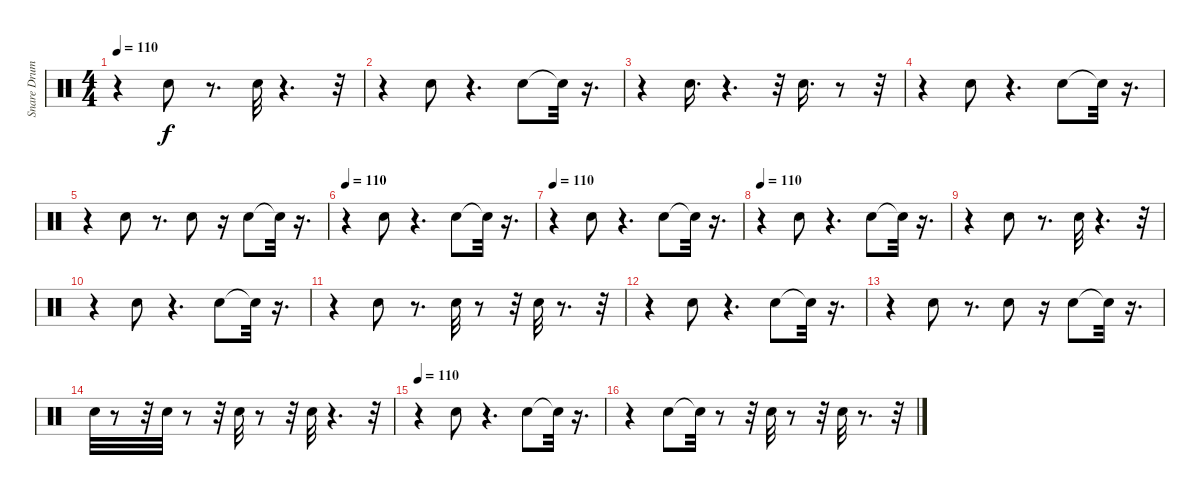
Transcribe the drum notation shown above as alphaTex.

\track ("Snare Drum" "Snare Drum") {instrument percussion}
\staff {score}
\articulation defaults
\ts (4 4)
\tempo 110
\clef neutral
\ks c
r.4{dy f} "Snare (hit) 2".8 r.8{d} "Snare (hit) 2".32 r.4{d} r.32 |
r.4 "Snare (hit) 2".8 r.4{d} "Snare (hit) 2".8 "Snare (hit)"{t}.32 r.16{d} |
r.4 "Snare (hit) 2".16{d} r.4{d} r.32 "Snare (hit) 2".16{d} r.8 r.32 |
r.4 "Snare (hit) 2".8 r.4{d} "Snare (hit) 2".8 "Snare (hit)"{t}.32 r.16{d} |
r.4 "Snare (hit) 2".8 r.8{d} "Snare (hit) 2".8 r.16 "Snare (hit) 2".8 "Snare (hit)"{t}.32 r.16{d} |
\tempo 110
r.4 "Snare (hit) 2".8 r.4{d} "Snare (hit) 2".8 "Snare (hit)"{t}.32 r.16{d} |
\tempo 110
r.4 "Snare (hit) 2".8 r.4{d} "Snare (hit) 2".8 "Snare (hit)"{t}.32 r.16{d} |
\tempo 110
r.4 "Snare (hit) 2".8 r.4{d} "Snare (hit) 2".8 "Snare (hit)"{t}.32 r.16{d} |
r.4 "Snare (hit) 2".8 r.8{d} "Snare (hit) 2".32 r.4{d} r.32 |
r.4 "Snare (hit) 2".8 r.4{d} "Snare (hit) 2".8 "Snare (hit)"{t}.32 r.16{d} |
r.4 "Snare (hit) 2".8 r.8{d} "Snare (hit) 2".32 r.8 r.32 "Snare (hit) 2".32 r.8{d} r.32 |
r.4 "Snare (hit) 2".8 r.4{d} "Snare (hit) 2".8 "Snare (hit)"{t}.32 r.16{d} |
r.4 "Snare (hit) 2".8 r.8{d} "Snare (hit) 2".8 r.16 "Snare (hit) 2".8 "Snare (hit)"{t}.32 r.16{d} |
"Snare (hit) 2".32 r.8 r.32 "Snare (hit) 2".32 r.8 r.32 "Snare (hit) 2".32 r.8 r.32 "Snare (hit) 2".32 r.4{d} r.32 |
\tempo 110
r.4 "Snare (hit) 2".8 r.4{d} "Snare (hit) 2".8 "Snare (hit)"{t}.32 r.16{d} |
r.4 "Snare (hit) 2".8 "Snare (hit)"{t}.32 r.8 r.32 "Snare (hit) 2".32 r.8 r.32 "Snare (hit) 2".32 r.8{d} r.32
